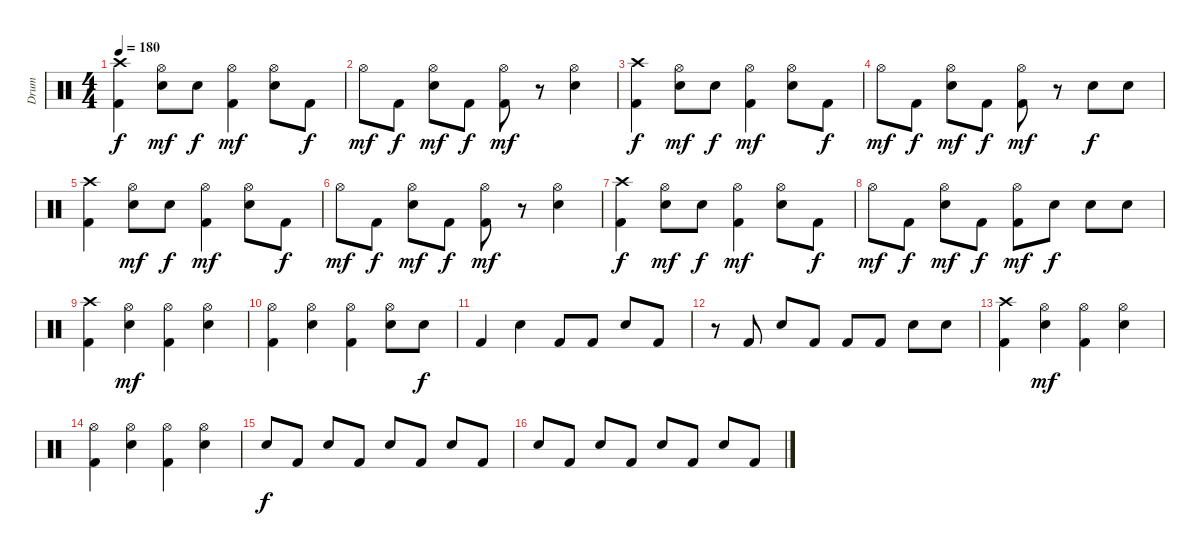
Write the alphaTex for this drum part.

\track ("Drum" "Drum") {instrument percussion}
\staff {score}
\articulation defaults
\ts (4 4)
\tempo 180
\clef neutral
\ks c
("Crash high (hit)" "Kick (hit) 2").4{dy f volume 16} ("Hi-Hat (open)" "Electric Snare (hit)").8{dy mf} "Electric Snare (hit)".8{dy f} ("Hi-Hat (open)" "Kick (hit) 2").4{dy mf} ("Hi-Hat (open)" "Electric Snare (hit)").8 "Kick (hit) 2".8{dy f} |
"Hi-Hat (open)".8{dy mf} "Kick (hit) 2".8{dy f} ("Hi-Hat (open)" "Electric Snare (hit)").8{dy mf} "Kick (hit) 2".8{dy f} ("Hi-Hat (open)" "Kick (hit) 2").8{dy mf} r.8 ("Hi-Hat (open)" "Electric Snare (hit)").4 |
("Crash high (hit)" "Kick (hit) 2").4{dy f volume 16} ("Hi-Hat (open)" "Electric Snare (hit)").8{dy mf} "Electric Snare (hit)".8{dy f} ("Hi-Hat (open)" "Kick (hit) 2").4{dy mf} ("Hi-Hat (open)" "Electric Snare (hit)").8 "Kick (hit) 2".8{dy f} |
"Hi-Hat (open)".8{dy mf} "Kick (hit) 2".8{dy f} ("Hi-Hat (open)" "Electric Snare (hit)").8{dy mf} "Kick (hit) 2".8{dy f} ("Hi-Hat (open)" "Kick (hit) 2").8{dy mf} r.8 "Electric Snare (hit)".8{dy f} "Electric Snare (hit)".8 |
("Crash high (hit)" "Kick (hit) 2").4{volume 16} ("Hi-Hat (open)" "Electric Snare (hit)").8{dy mf} "Electric Snare (hit)".8{dy f} ("Hi-Hat (open)" "Kick (hit) 2").4{dy mf} ("Hi-Hat (open)" "Electric Snare (hit)").8 "Kick (hit) 2".8{dy f} |
"Hi-Hat (open)".8{dy mf} "Kick (hit) 2".8{dy f} ("Hi-Hat (open)" "Electric Snare (hit)").8{dy mf} "Kick (hit) 2".8{dy f} ("Hi-Hat (open)" "Kick (hit) 2").8{dy mf} r.8 ("Hi-Hat (open)" "Electric Snare (hit)").4 |
("Crash high (hit)" "Kick (hit) 2").4{dy f volume 16} ("Hi-Hat (open)" "Electric Snare (hit)").8{dy mf} "Electric Snare (hit)".8{dy f} ("Hi-Hat (open)" "Kick (hit) 2").4{dy mf} ("Hi-Hat (open)" "Electric Snare (hit)").8 "Kick (hit) 2".8{dy f} |
"Hi-Hat (open)".8{dy mf} "Kick (hit) 2".8{dy f} ("Hi-Hat (open)" "Electric Snare (hit)").8{dy mf} "Kick (hit) 2".8{dy f} ("Hi-Hat (open)" "Kick (hit) 2").8{dy mf} "Electric Snare (hit)".8{dy f} "Electric Snare (hit)".8 "Electric Snare (hit)".8 |
("Crash high (hit)" "Kick (hit) 2").4 ("Hi-Hat (open)" "Electric Snare (hit)").4{dy mf} ("Hi-Hat (open)" "Kick (hit) 2").4 ("Hi-Hat (open)" "Electric Snare (hit)").4 |
("Hi-Hat (open)" "Kick (hit) 2").4 ("Hi-Hat (open)" "Electric Snare (hit)").4 ("Hi-Hat (open)" "Kick (hit) 2").4 ("Hi-Hat (open)" "Electric Snare (hit)").8 "Electric Snare (hit)".8{dy f} |
"Kick (hit) 2".4 "Electric Snare (hit)".4 "Kick (hit) 2".8 "Kick (hit) 2".8 "Electric Snare (hit)".8 "Kick (hit) 2".8 |
r.8 "Kick (hit) 2".8 "Electric Snare (hit)".8 "Kick (hit) 2".8 "Kick (hit) 2".8 "Kick (hit) 2".8 "Electric Snare (hit)".8 "Electric Snare (hit)".8 |
("Crash high (hit)" "Kick (hit) 2").4 ("Hi-Hat (open)" "Electric Snare (hit)").4{dy mf} ("Hi-Hat (open)" "Kick (hit) 2").4 ("Hi-Hat (open)" "Electric Snare (hit)").4 |
("Hi-Hat (open)" "Kick (hit) 2").4 ("Hi-Hat (open)" "Electric Snare (hit)").4 ("Hi-Hat (open)" "Kick (hit) 2").4 ("Hi-Hat (open)" "Electric Snare (hit)").4 |
"Electric Snare (hit)".8{dy f} "Kick (hit) 2".8 "Electric Snare (hit)".8 "Kick (hit) 2".8 "Electric Snare (hit)".8 "Kick (hit) 2".8 "Electric Snare (hit)".8 "Kick (hit) 2".8 |
"Electric Snare (hit)".8 "Kick (hit) 2".8 "Electric Snare (hit)".8 "Kick (hit) 2".8 "Electric Snare (hit)".8 "Kick (hit) 2".8 "Electric Snare (hit)".8 "Kick (hit) 2".8
